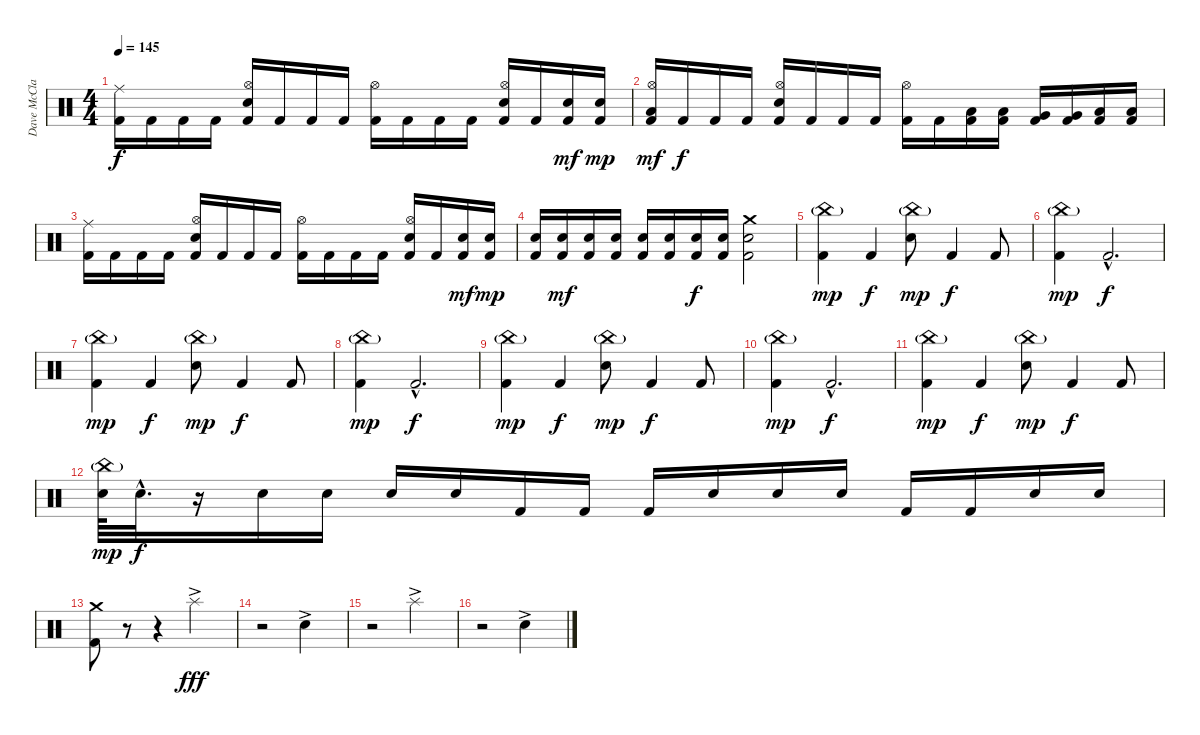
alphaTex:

\track ("Dave McClain" "Dave McCla") {instrument percussion}
\staff {score}
\articulation defaults
\ts (4 4)
\tempo 145
\clef neutral
\ks c
("Ride (middle)" "Kick (hit) 2").16{dy f} "Kick (hit) 2".16 "Kick (hit) 2".16 "Kick (hit) 2".16 ("Hi-Hat (open)" "Snare (hit) 2" "Kick (hit) 2").16 "Kick (hit) 2".16 "Kick (hit) 2".16 "Kick (hit) 2".16 ("Hi-Hat (open)" "Kick (hit) 2").16 "Kick (hit) 2".16 "Kick (hit) 2".16 "Kick (hit) 2".16 ("Hi-Hat (open)" "Snare (hit) 2" "Kick (hit) 2").16 "Kick (hit) 2".16 ("Snare (hit) 2" "Kick (hit) 2").16{dy mf} ("Electric Snare (hit)" "Kick (hit) 2").16{dy mp} |
("Hi-Hat (open)" "Low Tom (hit)" "Kick (hit) 2").16{dy mf} "Kick (hit) 2".16{dy f} "Kick (hit) 2".16 "Kick (hit) 2".16 ("Hi-Hat (open)" "Snare (hit) 2" "Kick (hit) 2").16 "Kick (hit) 2".16 "Kick (hit) 2".16 "Kick (hit) 2".16 ("Hi-Hat (open)" "Kick (hit) 2").16 "Kick (hit) 2".16 ("Low Floor Tom (hit)" "Kick (hit) 2").16 ("Low Floor Tom (hit)" "Kick (hit) 2").16 ("Very Low Tom (hit)" "Kick (hit) 2").16 ("Very Low Tom (hit)" "Kick (hit) 2").16 ("Low Floor Tom (hit)" "Kick (hit) 2").16 ("Low Floor Tom (hit)" "Kick (hit) 2").16 |
("Ride (middle)" "Kick (hit) 2").16 "Kick (hit) 2".16 "Kick (hit) 2".16 "Kick (hit) 2".16 ("Hi-Hat (open)" "Snare (hit) 2" "Kick (hit) 2").16 "Kick (hit) 2".16 "Kick (hit) 2".16 "Kick (hit) 2".16 ("Hi-Hat (open)" "Kick (hit) 2").16 "Kick (hit) 2".16 "Kick (hit) 2".16 "Kick (hit) 2".16 ("Hi-Hat (open)" "Snare (hit) 2" "Kick (hit) 2").16 "Kick (hit) 2".16 ("Snare (hit) 2" "Kick (hit) 2").16{dy mf} ("Electric Snare (hit)" "Kick (hit) 2").16{dy mp} |
("Electric Snare (hit)" "Kick (hit) 2").16 ("Electric Snare (hit)" "Kick (hit) 2").16{dy mf} ("Electric Snare (hit)" "Kick (hit) 2").16 ("Snare (hit) 2" "Kick (hit) 2").16 ("Snare (hit) 2" "Kick (hit) 2").16 ("Snare (hit) 2" "Kick (hit) 2").16 ("Snare (hit) 2" "Kick (hit) 2").16{dy f} ("Snare (hit) 2" "Kick (hit) 2").16 ("Crash medium (hit)" "Snare (hit) 2" "Kick (hit) 2").2 |
("China (hit)"{g} "Kick (hit) 2").4{dy mp} "Kick (hit) 2".4{dy f} ("China (hit)"{g} "Snare (hit) 2").8{dy mp} "Kick (hit) 2".4{dy f} "Kick (hit) 2".8 |
("China (hit)"{g} "Kick (hit) 2").4{dy mp} "Kick (hit) 2"{hac}.2{d dy f} |
("China (hit)"{g} "Kick (hit) 2").4{dy mp} "Kick (hit) 2".4{dy f} ("China (hit)"{g} "Snare (hit) 2").8{dy mp} "Kick (hit) 2".4{dy f} "Kick (hit) 2".8 |
("China (hit)"{g} "Kick (hit) 2").4{dy mp} "Kick (hit) 2"{hac}.2{d dy f} |
("China (hit)"{g} "Kick (hit) 2").4{dy mp} "Kick (hit) 2".4{dy f} ("China (hit)"{g} "Snare (hit) 2").8{dy mp} "Kick (hit) 2".4{dy f} "Kick (hit) 2".8 |
("China (hit)"{g} "Kick (hit) 2").4{dy mp} "Kick (hit) 2"{hac}.2{d dy f} |
("China (hit)"{g} "Kick (hit) 2").4{dy mp} "Kick (hit) 2".4{dy f} ("China (hit)"{g} "Snare (hit) 2").8{dy mp} "Kick (hit) 2".4{dy f} "Kick (hit) 2".8 |
("China (hit)"{g} "Snare (hit) 2").64{dy mp} "Snare (hit) 2"{hac}.32{d dy f} r.16 "Electric Snare (hit)".16 "Electric Snare (hit)".16 "Snare (hit) 2".16 "Snare (hit) 2".16 "Kick (hit) 2".16 "Kick (hit) 2".16 "Kick (hit) 2".16 "Electric Snare (hit)".16 "Electric Snare (hit)".16 "Electric Snare (hit)".16 "Kick (hit) 2".16 "Kick (hit) 2".16 "Snare (hit) 2".16 "Snare (hit) 2".16 |
("Crash medium (hit)" "Kick (hit) 2").8 r.8 r.4 "Splash (hit)"{ac}.2{dy fff} |
r.2 "Metronome (bell)"{ac}.2 |
r.2 "Splash (hit)"{ac}.2 |
r.2 "Metronome (bell)"{ac}.2
